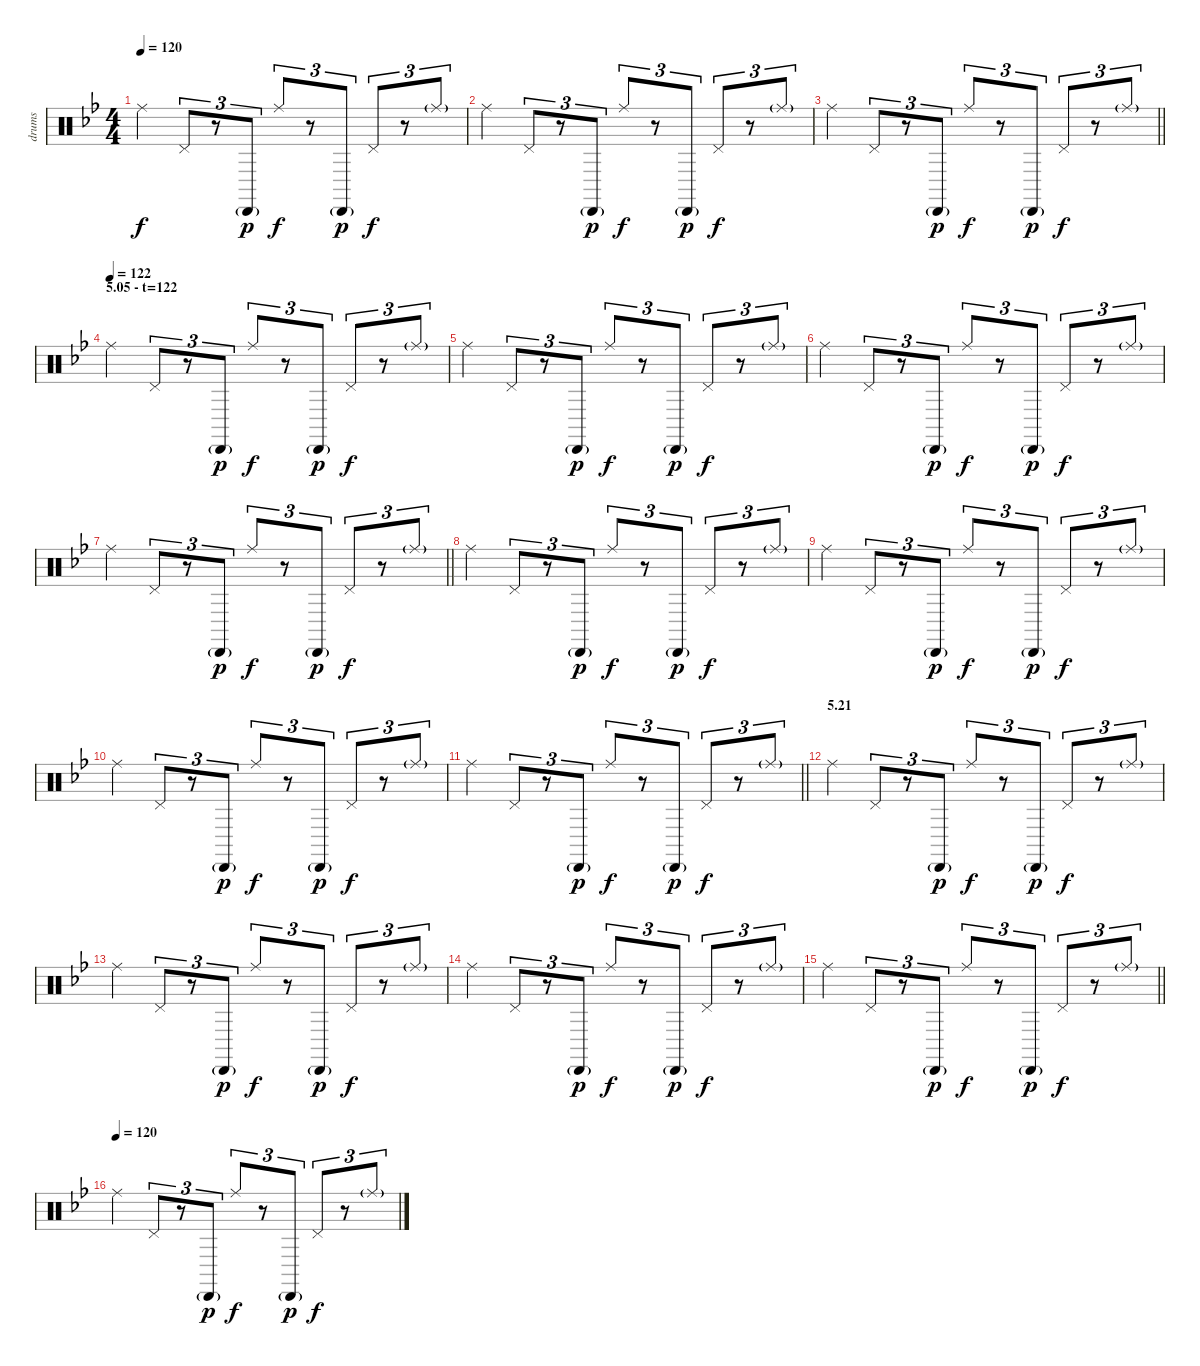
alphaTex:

\track ("drums" "drums") {instrument percussion}
\staff {score}
\articulation defaults
\ts (4 4)
\tempo 120
\clef neutral
\ks bb "Ride (middle)".4{dy f} "Pedal Hi-Hat (hit)".8{tu (3 2)}
r.8{tu (3 2)} "Cabasa (hit)"{g}.8{tu (3 2) dy p} "Ride (middle)".8{tu (3 2) dy f} r.8{tu (3 2)} "Cabasa (hit)"{g}.8{tu (3 2) dy p} "Pedal Hi-Hat (hit)".8{tu (3 2) dy f} r.8{tu (3 2)} "Ride (middle)"{g}.8{tu (3 2)} |
"Ride (middle)".4 "Pedal Hi-Hat (hit)".8{tu (3 2)} r.8{tu (3 2)} "Cabasa (hit)"{g}.8{tu (3 2) dy p} "Ride (middle)".8{tu (3 2) dy f} r.8{tu (3 2)} "Cabasa (hit)"{g}.8{tu (3 2) dy p} "Pedal Hi-Hat (hit)".8{tu (3 2) dy f} r.8{tu (3 2)} "Ride (middle)"{g}.8{tu (3 2)} |
\barLineRight lightlight "Ride (middle)".4 "Pedal Hi-Hat (hit)".8{tu (3 2)}
r.8{tu (3 2)} "Cabasa (hit)"{g}.8{tu (3 2) dy p} "Ride (middle)".8{tu (3 2) dy f} r.8{tu (3 2)} "Cabasa (hit)"{g}.8{tu (3 2) dy p} "Pedal Hi-Hat (hit)".8{tu (3 2) dy f} r.8{tu (3 2)} "Ride (middle)"{g}.8{tu (3 2)} |
\section ("" "5.05 - t=122")
\tempo (122)
"Ride (middle)".4 "Pedal Hi-Hat (hit)".8{tu (3 2)} r.8{tu (3 2)} "Cabasa (hit)"{g}.8{tu (3 2) dy p} "Ride (middle)".8{tu (3 2) dy f} r.8{tu (3 2)} "Cabasa (hit)"{g}.8{tu (3 2) dy p} "Pedal Hi-Hat (hit)".8{tu (3 2) dy f} r.8{tu (3 2)} "Ride (middle)"{g}.8{tu (3 2)} |
"Ride (middle)".4 "Pedal Hi-Hat (hit)".8{tu (3 2)} r.8{tu (3 2)} "Cabasa (hit)"{g}.8{tu (3 2) dy p} "Ride (middle)".8{tu (3 2) dy f} r.8{tu (3 2)} "Cabasa (hit)"{g}.8{tu (3 2) dy p} "Pedal Hi-Hat (hit)".8{tu (3 2) dy f} r.8{tu (3 2)} "Ride (middle)"{g}.8{tu (3 2)} |
"Ride (middle)".4 "Pedal Hi-Hat (hit)".8{tu (3 2)} r.8{tu (3 2)} "Cabasa (hit)"{g}.8{tu (3 2) dy p} "Ride (middle)".8{tu (3 2) dy f} r.8{tu (3 2)} "Cabasa (hit)"{g}.8{tu (3 2) dy p} "Pedal Hi-Hat (hit)".8{tu (3 2) dy f} r.8{tu (3 2)} "Ride (middle)"{g}.8{tu (3 2)} |
\barLineRight lightlight "Ride (middle)".4 "Pedal Hi-Hat (hit)".8{tu (3 2)}
r.8{tu (3 2)} "Cabasa (hit)"{g}.8{tu (3 2) dy p} "Ride (middle)".8{tu (3 2) dy f} r.8{tu (3 2)} "Cabasa (hit)"{g}.8{tu (3 2) dy p} "Pedal Hi-Hat (hit)".8{tu (3 2) dy f} r.8{tu (3 2)} "Ride (middle)"{g}.8{tu (3 2)} |
"Ride (middle)".4 "Pedal Hi-Hat (hit)".8{tu (3 2)} r.8{tu (3 2)} "Cabasa (hit)"{g}.8{tu (3 2) dy p} "Ride (middle)".8{tu (3 2) dy f} r.8{tu (3 2)} "Cabasa (hit)"{g}.8{tu (3 2) dy p} "Pedal Hi-Hat (hit)".8{tu (3 2) dy f} r.8{tu (3 2)} "Ride (middle)"{g}.8{tu (3 2)} |
"Ride (middle)".4 "Pedal Hi-Hat (hit)".8{tu (3 2)} r.8{tu (3 2)} "Cabasa (hit)"{g}.8{tu (3 2) dy p} "Ride (middle)".8{tu (3 2) dy f} r.8{tu (3 2)} "Cabasa (hit)"{g}.8{tu (3 2) dy p} "Pedal Hi-Hat (hit)".8{tu (3 2) dy f} r.8{tu (3 2)} "Ride (middle)"{g}.8{tu (3 2)} |
"Ride (middle)".4 "Pedal Hi-Hat (hit)".8{tu (3 2)} r.8{tu (3 2)} "Cabasa (hit)"{g}.8{tu (3 2) dy p} "Ride (middle)".8{tu (3 2) dy f} r.8{tu (3 2)} "Cabasa (hit)"{g}.8{tu (3 2) dy p} "Pedal Hi-Hat (hit)".8{tu (3 2) dy f} r.8{tu (3 2)} "Ride (middle)"{g}.8{tu (3 2)} |
\barLineRight lightlight "Ride (middle)".4 "Pedal Hi-Hat (hit)".8{tu (3 2)}
r.8{tu (3 2)} "Cabasa (hit)"{g}.8{tu (3 2) dy p} "Ride (middle)".8{tu (3 2) dy f} r.8{tu (3 2)} "Cabasa (hit)"{g}.8{tu (3 2) dy p} "Pedal Hi-Hat (hit)".8{tu (3 2) dy f} r.8{tu (3 2)} "Ride (middle)"{g}.8{tu (3 2)} |
\section ("" "5.21")
"Ride (middle)".4 "Pedal Hi-Hat (hit)".8{tu (3 2)} r.8{tu (3 2)} "Cabasa (hit)"{g}.8{tu (3 2) dy p} "Ride (middle)".8{tu (3 2) dy f} r.8{tu (3 2)} "Cabasa (hit)"{g}.8{tu (3 2) dy p} "Pedal Hi-Hat (hit)".8{tu (3 2) dy f} r.8{tu (3 2)} "Ride (middle)"{g}.8{tu (3 2)} |
"Ride (middle)".4 "Pedal Hi-Hat (hit)".8{tu (3 2)} r.8{tu (3 2)} "Cabasa (hit)"{g}.8{tu (3 2) dy p} "Ride (middle)".8{tu (3 2) dy f} r.8{tu (3 2)} "Cabasa (hit)"{g}.8{tu (3 2) dy p} "Pedal Hi-Hat (hit)".8{tu (3 2) dy f} r.8{tu (3 2)} "Ride (middle)"{g}.8{tu (3 2)} |
"Ride (middle)".4 "Pedal Hi-Hat (hit)".8{tu (3 2)} r.8{tu (3 2)} "Cabasa (hit)"{g}.8{tu (3 2) dy p} "Ride (middle)".8{tu (3 2) dy f} r.8{tu (3 2)} "Cabasa (hit)"{g}.8{tu (3 2) dy p} "Pedal Hi-Hat (hit)".8{tu (3 2) dy f} r.8{tu (3 2)} "Ride (middle)"{g}.8{tu (3 2)} |
\barLineRight lightlight "Ride (middle)".4 "Pedal Hi-Hat (hit)".8{tu (3 2)}
r.8{tu (3 2)} "Cabasa (hit)"{g}.8{tu (3 2) dy p} "Ride (middle)".8{tu (3 2) dy f} r.8{tu (3 2)} "Cabasa (hit)"{g}.8{tu (3 2) dy p} "Pedal Hi-Hat (hit)".8{tu (3 2) dy f} r.8{tu (3 2)} "Ride (middle)"{g}.8{tu (3 2)} |
\tempo (120)
"Ride (middle)".4 "Pedal Hi-Hat (hit)".8{tu (3 2)} r.8{tu (3 2)} "Cabasa (hit)"{g}.8{tu (3 2) dy p} "Ride (middle)".8{tu (3 2) dy f} r.8{tu (3 2)} "Cabasa (hit)"{g}.8{tu (3 2) dy p} "Pedal Hi-Hat (hit)".8{tu (3 2) dy f} r.8{tu (3 2)} "Ride (middle)"{g}.8{tu (3 2)}
